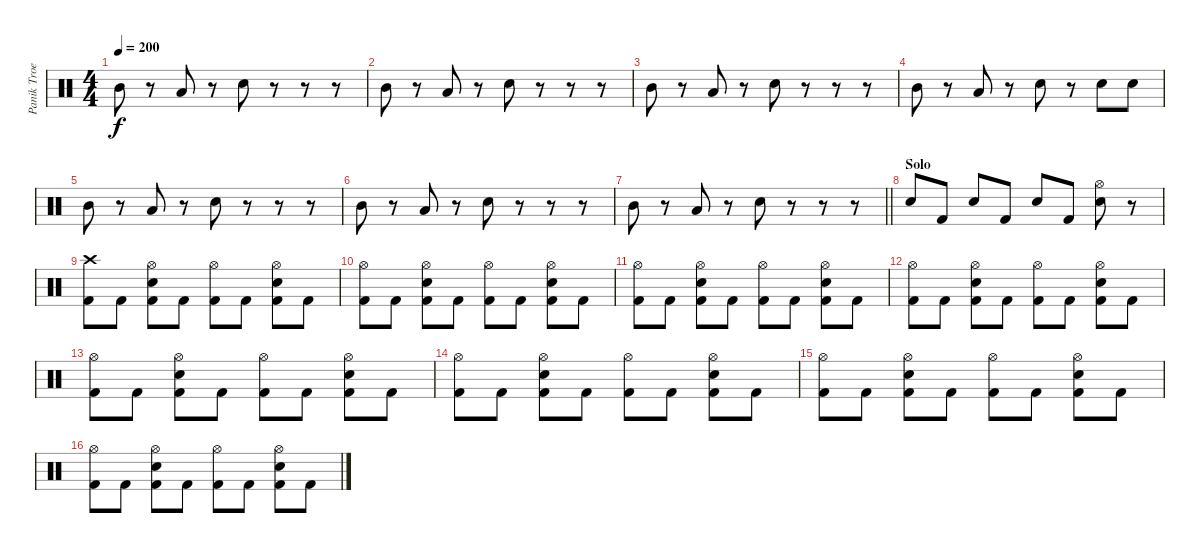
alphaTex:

\track ("Panik Troels ( Dengang )" "Panik Troe") {instrument percussion}
\staff {score}
\articulation defaults
\ts (4 4)
\tempo 200
\clef neutral
\ks c "Mid Tom (hit)".8{dy f}
r.8 "Low Tom (hit)".8 r.8 "Snare (hit) 2".8 r.8 r.8 r.8 |
"Mid Tom (hit)".8 r.8 "Low Tom (hit)".8 r.8 "Snare (hit) 2".8 r.8 r.8 r.8 |
"Mid Tom (hit)".8 r.8 "Low Tom (hit)".8 r.8 "Snare (hit) 2".8 r.8 r.8 r.8 |
"Mid Tom (hit)".8 r.8 "Low Tom (hit)".8 r.8 "Snare (hit) 2".8 r.8 "Snare (hit) 2".8 "Snare (hit) 2".8 |
"Mid Tom (hit)".8 r.8 "Low Tom (hit)".8 r.8 "Snare (hit) 2".8 r.8 r.8 r.8 |
"Mid Tom (hit)".8 r.8 "Low Tom (hit)".8 r.8 "Snare (hit) 2".8 r.8 r.8 r.8 |
\barLineRight lightlight "Mid Tom (hit)".8
r.8 "Low Tom (hit)".8 r.8 "Snare (hit) 2".8 r.8 r.8 r.8 |
\section ("" "Solo")
"Snare (hit) 2".8 "Kick (hit) 2".8 "Snare (hit) 2".8 "Kick (hit) 2".8 "Snare (hit) 2".8 "Kick (hit) 2".8 ("Snare (hit) 2" "Hi-Hat (open)").8 r.8 |
("Kick (hit) 2" "Crash high (hit)").8 "Kick (hit) 2".8 ("Kick (hit) 2" "Hi-Hat (open)" "Snare (hit) 2").8 "Kick (hit) 2".8 ("Kick (hit) 2" "Hi-Hat (open)").8 "Kick (hit) 2".8 ("Kick (hit) 2" "Hi-Hat (open)" "Snare (hit) 2").8 "Kick (hit) 2".8 |
("Kick (hit) 2" "Hi-Hat (open)").8 "Kick (hit) 2".8 ("Kick (hit) 2" "Hi-Hat (open)" "Snare (hit) 2").8 "Kick (hit) 2".8 ("Kick (hit) 2" "Hi-Hat (open)").8 "Kick (hit) 2".8 ("Kick (hit) 2" "Hi-Hat (open)" "Snare (hit) 2").8 "Kick (hit) 2".8 |
("Kick (hit) 2" "Hi-Hat (open)").8 "Kick (hit) 2".8 ("Kick (hit) 2" "Hi-Hat (open)" "Snare (hit) 2").8 "Kick (hit) 2".8 ("Kick (hit) 2" "Hi-Hat (open)").8 "Kick (hit) 2".8 ("Kick (hit) 2" "Hi-Hat (open)" "Snare (hit) 2").8 "Kick (hit) 2".8 |
("Kick (hit) 2" "Hi-Hat (open)").8 "Kick (hit) 2".8 ("Kick (hit) 2" "Hi-Hat (open)" "Snare (hit) 2").8 "Kick (hit) 2".8 ("Kick (hit) 2" "Hi-Hat (open)").8 "Kick (hit) 2".8 ("Kick (hit) 2" "Hi-Hat (open)" "Snare (hit) 2").8 "Kick (hit) 2".8 |
("Kick (hit) 2" "Hi-Hat (open)").8 "Kick (hit) 2".8 ("Kick (hit) 2" "Hi-Hat (open)" "Snare (hit) 2").8 "Kick (hit) 2".8 ("Kick (hit) 2" "Hi-Hat (open)").8 "Kick (hit) 2".8 ("Kick (hit) 2" "Hi-Hat (open)" "Snare (hit) 2").8 "Kick (hit) 2".8 |
("Kick (hit) 2" "Hi-Hat (open)").8 "Kick (hit) 2".8 ("Kick (hit) 2" "Hi-Hat (open)" "Snare (hit) 2").8 "Kick (hit) 2".8 ("Kick (hit) 2" "Hi-Hat (open)").8 "Kick (hit) 2".8 ("Kick (hit) 2" "Hi-Hat (open)" "Snare (hit) 2").8 "Kick (hit) 2".8 |
("Kick (hit) 2" "Hi-Hat (open)").8 "Kick (hit) 2".8 ("Kick (hit) 2" "Hi-Hat (open)" "Snare (hit) 2").8 "Kick (hit) 2".8 ("Kick (hit) 2" "Hi-Hat (open)").8 "Kick (hit) 2".8 ("Kick (hit) 2" "Hi-Hat (open)" "Snare (hit) 2").8 "Kick (hit) 2".8 |
("Kick (hit) 2" "Hi-Hat (open)").8 "Kick (hit) 2".8 ("Kick (hit) 2" "Hi-Hat (open)" "Snare (hit) 2").8 "Kick (hit) 2".8 ("Kick (hit) 2" "Hi-Hat (open)").8 "Kick (hit) 2".8 ("Kick (hit) 2" "Hi-Hat (open)" "Snare (hit) 2").8 "Kick (hit) 2".8
